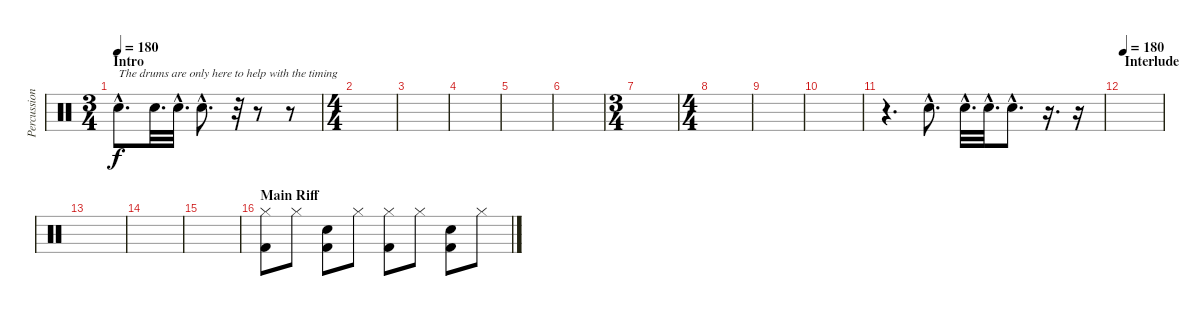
\track ("Percussion" "Percussion") {instrument percussion}
\staff {score}
\articulation defaults
\ts (3 4)
\section ("" "Intro")
\tempo 180
\tempo 200
\tempo 180
\clef neutral
\ks c "Electric Snare (hit)"{hac}.8{d txt "The drums are only here to help with the timing" dy f} "Electric Snare (hit)".32{d} "Electric Snare (hit)"{hac}.32{d} "Electric Snare (hit)"{hac}.8{d}
r.32 r.8 r.8 |
\ts (4 4)
|
|
|
|
|
\ts (3 4)
|
\ts (4 4)
|
|
|
r.4{d} "Electric Snare (hit)"{hac}.8{d} "Electric Snare (hit)"{hac}.32{d} "Electric Snare (hit)"{hac}.32{d} "Electric Snare (hit)"{hac}.8{d} r.16{d} r.16 |
\section ("" "Interlude")
\tempo 180
|
|
|
|
\section ("" "Main Riff")
("Kick (hit) 2" "Hi-Hat (closed)").8 "Hi-Hat (closed)".8 ("Kick (hit) 2" "Snare (hit) 2").8 "Hi-Hat (closed)".8 ("Kick (hit) 2" "Hi-Hat (closed)").8 "Hi-Hat (closed)".8 ("Kick (hit) 2" "Electric Snare (hit)").8 "Hi-Hat (closed)".8
